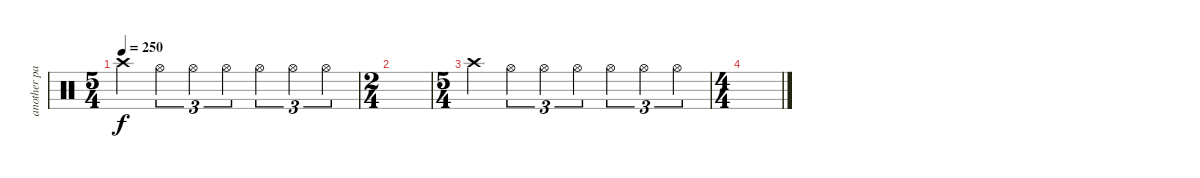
\track ("another part of metti" "another pa") {instrument percussion}
\staff {score}
\articulation defaults
\ts (5 4)
\tempo 250
\clef neutral
\ks c "Crash high (hit)".4{dy f} "Hi-Hat (open)".4{tu (3 2)} "Hi-Hat (open)".4{tu (3 2)} "Hi-Hat (open)".4{tu (3 2)} "Hi-Hat (open)".4{tu (3 2)} "Hi-Hat (open)".4{tu (3 2)} "Hi-Hat (open)".4{tu (3 2)}
|
\ts (2 4)
|
\ts (5 4)
"Crash high (hit)".4 "Hi-Hat (open)".4{tu (3 2)} "Hi-Hat (open)".4{tu (3 2)} "Hi-Hat (open)".4{tu (3 2)} "Hi-Hat (open)".4{tu (3 2)} "Hi-Hat (open)".4{tu (3 2)} "Hi-Hat (open)".4{tu (3 2)} |
\ts (4 4)
